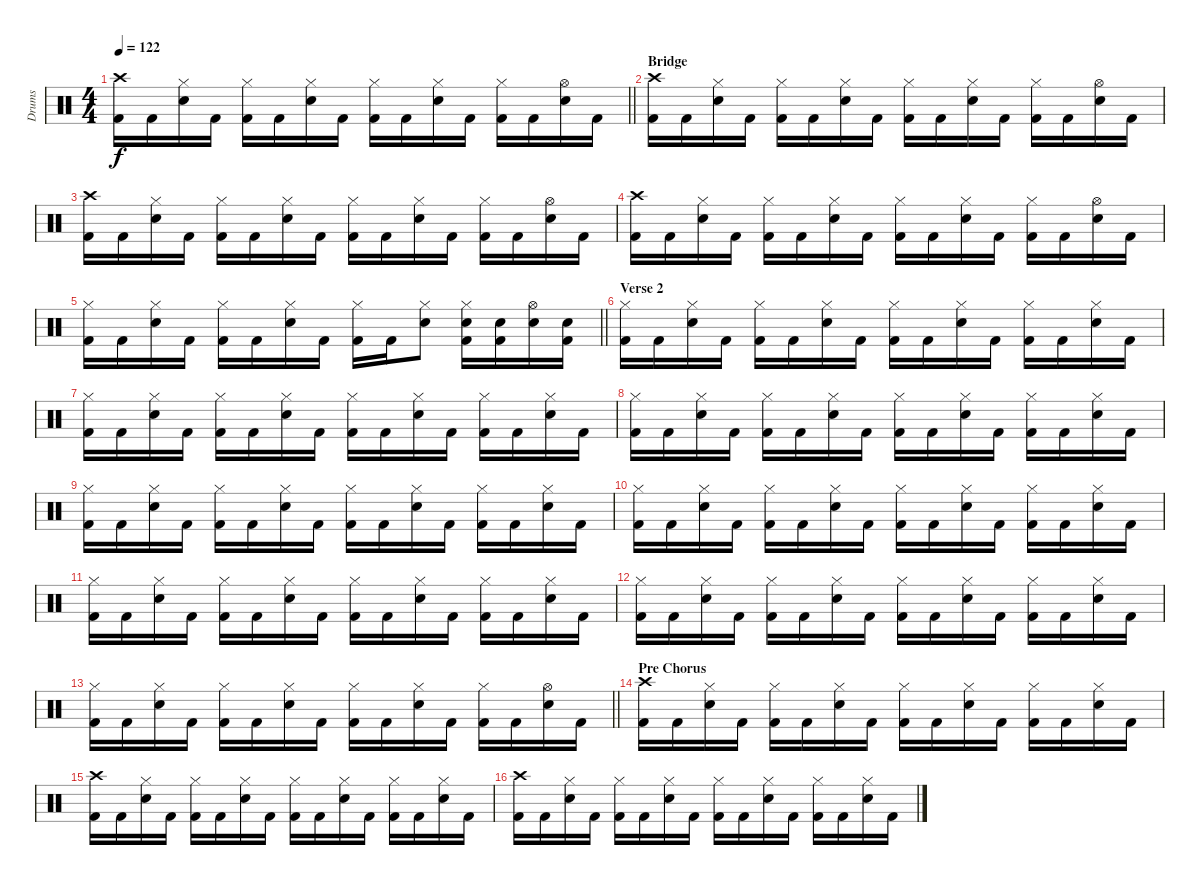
\track ("Drums" "Drums") {instrument percussion}
\staff {score}
\articulation defaults
\ts (4 4)
\tempo 122
\clef neutral
\barLineRight lightlight
\ks c
("Crash high (hit)" "Kick (hit) 2").16{dy f} "Kick (hit) 2".16 ("Hi-Hat (closed)" "Snare (hit) 2").16 "Kick (hit) 2".16 ("Hi-Hat (closed)" "Kick (hit) 2").16 "Kick (hit) 2".16 ("Hi-Hat (closed)" "Snare (hit) 2").16 "Kick (hit) 2".16 ("Hi-Hat (closed)" "Kick (hit) 2").16 "Kick (hit) 2".16 ("Hi-Hat (closed)" "Snare (hit) 2").16 "Kick (hit) 2".16 ("Hi-Hat (closed)" "Kick (hit) 2").16 "Kick (hit) 2".16 ("Hi-Hat (open)" "Snare (hit) 2").16 "Kick (hit) 2".16 |
\section ("" "Bridge")
("Crash high (hit)" "Kick (hit) 2").16 "Kick (hit) 2".16 ("Hi-Hat (closed)" "Snare (hit) 2").16 "Kick (hit) 2".16 ("Hi-Hat (closed)" "Kick (hit) 2").16 "Kick (hit) 2".16 ("Hi-Hat (closed)" "Snare (hit) 2").16 "Kick (hit) 2".16 ("Hi-Hat (closed)" "Kick (hit) 2").16 "Kick (hit) 2".16 ("Hi-Hat (closed)" "Snare (hit) 2").16 "Kick (hit) 2".16 ("Hi-Hat (closed)" "Kick (hit) 2").16 "Kick (hit) 2".16 ("Hi-Hat (open)" "Snare (hit) 2").16 "Kick (hit) 2".16 |
("Crash high (hit)" "Kick (hit) 2").16 "Kick (hit) 2".16 ("Hi-Hat (closed)" "Snare (hit) 2").16 "Kick (hit) 2".16 ("Hi-Hat (closed)" "Kick (hit) 2").16 "Kick (hit) 2".16 ("Hi-Hat (closed)" "Snare (hit) 2").16 "Kick (hit) 2".16 ("Hi-Hat (closed)" "Kick (hit) 2").16 "Kick (hit) 2".16 ("Hi-Hat (closed)" "Snare (hit) 2").16 "Kick (hit) 2".16 ("Hi-Hat (closed)" "Kick (hit) 2").16 "Kick (hit) 2".16 ("Hi-Hat (open)" "Snare (hit) 2").16 "Kick (hit) 2".16 |
("Crash high (hit)" "Kick (hit) 2").16 "Kick (hit) 2".16 ("Hi-Hat (closed)" "Snare (hit) 2").16 "Kick (hit) 2".16 ("Hi-Hat (closed)" "Kick (hit) 2").16 "Kick (hit) 2".16 ("Hi-Hat (closed)" "Snare (hit) 2").16 "Kick (hit) 2".16 ("Hi-Hat (closed)" "Kick (hit) 2").16 "Kick (hit) 2".16 ("Hi-Hat (closed)" "Snare (hit) 2").16 "Kick (hit) 2".16 ("Hi-Hat (closed)" "Kick (hit) 2").16 "Kick (hit) 2".16 ("Hi-Hat (open)" "Snare (hit) 2").16 "Kick (hit) 2".16 |
\barLineRight lightlight
("Hi-Hat (closed)" "Kick (hit) 2").16 "Kick (hit) 2".16 ("Hi-Hat (closed)" "Snare (hit) 2").16 "Kick (hit) 2".16 ("Hi-Hat (closed)" "Kick (hit) 2").16 "Kick (hit) 2".16 ("Hi-Hat (closed)" "Snare (hit) 2").16 "Kick (hit) 2".16 ("Hi-Hat (closed)" "Kick (hit) 2").16 "Kick (hit) 2".16 ("Hi-Hat (closed)" "Snare (hit) 2").8 ("Hi-Hat (closed)" "Snare (hit) 2" "Kick (hit) 2").16 ("Snare (hit) 2" "Kick (hit) 2").16 ("Hi-Hat (open)" "Snare (hit) 2").16 ("Snare (hit) 2" "Kick (hit) 2").16 |
\section ("" "Verse 2")
("Hi-Hat (closed)" "Kick (hit) 2").16 "Kick (hit) 2".16 ("Hi-Hat (closed)" "Snare (hit) 2").16 "Kick (hit) 2".16 ("Hi-Hat (closed)" "Kick (hit) 2").16 "Kick (hit) 2".16 ("Hi-Hat (closed)" "Snare (hit) 2").16 "Kick (hit) 2".16 ("Hi-Hat (closed)" "Kick (hit) 2").16 "Kick (hit) 2".16 ("Hi-Hat (closed)" "Snare (hit) 2").16 "Kick (hit) 2".16 ("Hi-Hat (closed)" "Kick (hit) 2").16 "Kick (hit) 2".16 ("Hi-Hat (closed)" "Snare (hit) 2").16 "Kick (hit) 2".16 |
("Hi-Hat (closed)" "Kick (hit) 2").16 "Kick (hit) 2".16 ("Hi-Hat (closed)" "Snare (hit) 2").16 "Kick (hit) 2".16 ("Hi-Hat (closed)" "Kick (hit) 2").16 "Kick (hit) 2".16 ("Hi-Hat (closed)" "Snare (hit) 2").16 "Kick (hit) 2".16 ("Hi-Hat (closed)" "Kick (hit) 2").16 "Kick (hit) 2".16 ("Hi-Hat (closed)" "Snare (hit) 2").16 "Kick (hit) 2".16 ("Hi-Hat (closed)" "Kick (hit) 2").16 "Kick (hit) 2".16 ("Hi-Hat (closed)" "Snare (hit) 2").16 "Kick (hit) 2".16 |
("Hi-Hat (closed)" "Kick (hit) 2").16 "Kick (hit) 2".16 ("Hi-Hat (closed)" "Snare (hit) 2").16 "Kick (hit) 2".16 ("Hi-Hat (closed)" "Kick (hit) 2").16 "Kick (hit) 2".16 ("Hi-Hat (closed)" "Snare (hit) 2").16 "Kick (hit) 2".16 ("Hi-Hat (closed)" "Kick (hit) 2").16 "Kick (hit) 2".16 ("Hi-Hat (closed)" "Snare (hit) 2").16 "Kick (hit) 2".16 ("Hi-Hat (closed)" "Kick (hit) 2").16 "Kick (hit) 2".16 ("Hi-Hat (closed)" "Snare (hit) 2").16 "Kick (hit) 2".16 |
("Hi-Hat (closed)" "Kick (hit) 2").16 "Kick (hit) 2".16 ("Hi-Hat (closed)" "Snare (hit) 2").16 "Kick (hit) 2".16 ("Hi-Hat (closed)" "Kick (hit) 2").16 "Kick (hit) 2".16 ("Hi-Hat (closed)" "Snare (hit) 2").16 "Kick (hit) 2".16 ("Hi-Hat (closed)" "Kick (hit) 2").16 "Kick (hit) 2".16 ("Hi-Hat (closed)" "Snare (hit) 2").16 "Kick (hit) 2".16 ("Hi-Hat (closed)" "Kick (hit) 2").16 "Kick (hit) 2".16 ("Hi-Hat (closed)" "Snare (hit) 2").16 "Kick (hit) 2".16 |
("Hi-Hat (closed)" "Kick (hit) 2").16 "Kick (hit) 2".16 ("Hi-Hat (closed)" "Snare (hit) 2").16 "Kick (hit) 2".16 ("Hi-Hat (closed)" "Kick (hit) 2").16 "Kick (hit) 2".16 ("Hi-Hat (closed)" "Snare (hit) 2").16 "Kick (hit) 2".16 ("Hi-Hat (closed)" "Kick (hit) 2").16 "Kick (hit) 2".16 ("Hi-Hat (closed)" "Snare (hit) 2").16 "Kick (hit) 2".16 ("Hi-Hat (closed)" "Kick (hit) 2").16 "Kick (hit) 2".16 ("Hi-Hat (closed)" "Snare (hit) 2").16 "Kick (hit) 2".16 |
("Hi-Hat (closed)" "Kick (hit) 2").16 "Kick (hit) 2".16 ("Hi-Hat (closed)" "Snare (hit) 2").16 "Kick (hit) 2".16 ("Hi-Hat (closed)" "Kick (hit) 2").16 "Kick (hit) 2".16 ("Hi-Hat (closed)" "Snare (hit) 2").16 "Kick (hit) 2".16 ("Hi-Hat (closed)" "Kick (hit) 2").16 "Kick (hit) 2".16 ("Hi-Hat (closed)" "Snare (hit) 2").16 "Kick (hit) 2".16 ("Hi-Hat (closed)" "Kick (hit) 2").16 "Kick (hit) 2".16 ("Hi-Hat (closed)" "Snare (hit) 2").16 "Kick (hit) 2".16 |
("Hi-Hat (closed)" "Kick (hit) 2").16 "Kick (hit) 2".16 ("Hi-Hat (closed)" "Snare (hit) 2").16 "Kick (hit) 2".16 ("Hi-Hat (closed)" "Kick (hit) 2").16 "Kick (hit) 2".16 ("Hi-Hat (closed)" "Snare (hit) 2").16 "Kick (hit) 2".16 ("Hi-Hat (closed)" "Kick (hit) 2").16 "Kick (hit) 2".16 ("Hi-Hat (closed)" "Snare (hit) 2").16 "Kick (hit) 2".16 ("Hi-Hat (closed)" "Kick (hit) 2").16 "Kick (hit) 2".16 ("Hi-Hat (closed)" "Snare (hit) 2").16 "Kick (hit) 2".16 |
\barLineRight lightlight
("Hi-Hat (closed)" "Kick (hit) 2").16 "Kick (hit) 2".16 ("Hi-Hat (closed)" "Snare (hit) 2").16 "Kick (hit) 2".16 ("Hi-Hat (closed)" "Kick (hit) 2").16 "Kick (hit) 2".16 ("Hi-Hat (closed)" "Snare (hit) 2").16 "Kick (hit) 2".16 ("Hi-Hat (closed)" "Kick (hit) 2").16 "Kick (hit) 2".16 ("Hi-Hat (closed)" "Snare (hit) 2").16 "Kick (hit) 2".16 ("Hi-Hat (closed)" "Kick (hit) 2").16 "Kick (hit) 2".16 ("Hi-Hat (open)" "Snare (hit) 2").16 "Kick (hit) 2".16 |
\section ("" "Pre Chorus")
("Crash high (hit)" "Kick (hit) 2").16 "Kick (hit) 2".16 ("Hi-Hat (closed)" "Snare (hit) 2").16 "Kick (hit) 2".16 ("Hi-Hat (closed)" "Kick (hit) 2").16 "Kick (hit) 2".16 ("Hi-Hat (closed)" "Snare (hit) 2").16 "Kick (hit) 2".16 ("Hi-Hat (closed)" "Kick (hit) 2").16 "Kick (hit) 2".16 ("Hi-Hat (closed)" "Snare (hit) 2").16 "Kick (hit) 2".16 ("Hi-Hat (closed)" "Kick (hit) 2").16 "Kick (hit) 2".16 ("Hi-Hat (closed)" "Snare (hit) 2").16 "Kick (hit) 2".16 |
("Crash high (hit)" "Kick (hit) 2").16 "Kick (hit) 2".16 ("Hi-Hat (closed)" "Snare (hit) 2").16 "Kick (hit) 2".16 ("Hi-Hat (closed)" "Kick (hit) 2").16 "Kick (hit) 2".16 ("Hi-Hat (closed)" "Snare (hit) 2").16 "Kick (hit) 2".16 ("Hi-Hat (closed)" "Kick (hit) 2").16 "Kick (hit) 2".16 ("Hi-Hat (closed)" "Snare (hit) 2").16 "Kick (hit) 2".16 ("Hi-Hat (closed)" "Kick (hit) 2").16 "Kick (hit) 2".16 ("Hi-Hat (closed)" "Snare (hit) 2").16 "Kick (hit) 2".16 |
("Crash high (hit)" "Kick (hit) 2").16 "Kick (hit) 2".16 ("Hi-Hat (closed)" "Snare (hit) 2").16 "Kick (hit) 2".16 ("Hi-Hat (closed)" "Kick (hit) 2").16 "Kick (hit) 2".16 ("Hi-Hat (closed)" "Snare (hit) 2").16 "Kick (hit) 2".16 ("Hi-Hat (closed)" "Kick (hit) 2").16 "Kick (hit) 2".16 ("Hi-Hat (closed)" "Snare (hit) 2").16 "Kick (hit) 2".16 ("Hi-Hat (closed)" "Kick (hit) 2").16 "Kick (hit) 2".16 ("Hi-Hat (closed)" "Snare (hit) 2").16 "Kick (hit) 2".16
